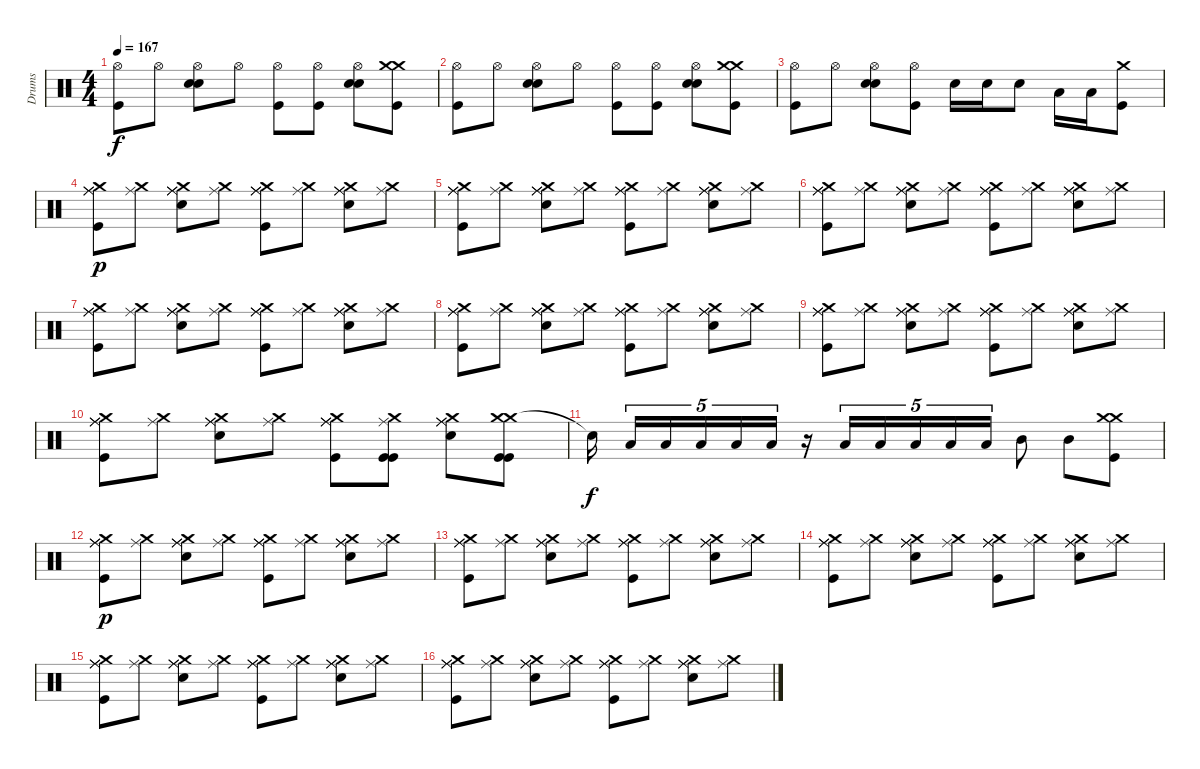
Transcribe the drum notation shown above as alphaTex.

\track ("Drums" "Drums") {instrument percussion}
\staff {score}
\articulation defaults
\ts (4 4)
\tempo 167
\clef neutral
\ks c
("Hi-Hat (open)" "Kick (hit)").8{dy f} "Hi-Hat (open)".8 ("Hi-Hat (open)" "Snare (hit) 2" "Snare (hit) 2").8 "Hi-Hat (open)".8 ("Hi-Hat (open)" "Kick (hit)").8 ("Hi-Hat (open)" "Kick (hit)").8 ("Hi-Hat (open)" "Snare (hit) 2" "Snare (hit) 2").8 ("Crash medium (hit)" "Crash medium (hit)" "Kick (hit)").8 |
("Hi-Hat (open)" "Kick (hit)").8 "Hi-Hat (open)".8 ("Hi-Hat (open)" "Snare (hit) 2" "Snare (hit) 2").8 "Hi-Hat (open)".8 ("Hi-Hat (open)" "Kick (hit)").8 ("Hi-Hat (open)" "Kick (hit)").8 ("Hi-Hat (open)" "Snare (hit) 2" "Snare (hit) 2").8 ("Crash medium (hit)" "Crash medium (hit)" "Kick (hit)").8 |
("Hi-Hat (open)" "Kick (hit)").8 "Hi-Hat (open)".8 ("Hi-Hat (open)" "Snare (hit) 2" "Snare (hit) 2").8 ("Hi-Hat (open)" "Kick (hit)").8 "Snare (hit) 2".16 "Snare (hit) 2".16 "Snare (hit) 2".8 "Low Tom (hit)".16 "Low Tom (hit)".16 ("Crash medium (hit)" "Kick (hit)").8 |
("Ride (middle)" "Crash medium (hit)" "Ride (middle)" "Ride (middle)" "Kick (hit)").8{dy p} ("Ride (middle)" "Crash medium (hit)").8 ("Ride (middle)" "Crash medium (hit)" "Snare (hit) 2" "Ride (middle)" "Ride (middle)").8 ("Ride (middle)" "Crash medium (hit)").8 ("Ride (middle)" "Crash medium (hit)" "Ride (middle)" "Ride (middle)" "Kick (hit)").8 ("Ride (middle)" "Crash medium (hit)").8 ("Ride (middle)" "Crash medium (hit)" "Snare (hit) 2" "Ride (middle)" "Ride (middle)").8 ("Ride (middle)" "Crash medium (hit)").8 |
("Ride (middle)" "Crash medium (hit)" "Ride (middle)" "Ride (middle)" "Kick (hit)").8 ("Ride (middle)" "Crash medium (hit)").8 ("Ride (middle)" "Crash medium (hit)" "Snare (hit) 2" "Ride (middle)" "Ride (middle)").8 ("Ride (middle)" "Crash medium (hit)").8 ("Ride (middle)" "Crash medium (hit)" "Ride (middle)" "Ride (middle)" "Kick (hit)").8 ("Ride (middle)" "Crash medium (hit)").8 ("Ride (middle)" "Crash medium (hit)" "Snare (hit) 2" "Ride (middle)" "Ride (middle)").8 ("Ride (middle)" "Crash medium (hit)").8 |
("Ride (middle)" "Crash medium (hit)" "Ride (middle)" "Ride (middle)" "Kick (hit)").8 ("Ride (middle)" "Crash medium (hit)").8 ("Ride (middle)" "Crash medium (hit)" "Snare (hit) 2" "Ride (middle)" "Ride (middle)").8 ("Ride (middle)" "Crash medium (hit)").8 ("Ride (middle)" "Crash medium (hit)" "Ride (middle)" "Ride (middle)" "Kick (hit)").8 ("Ride (middle)" "Crash medium (hit)").8 ("Ride (middle)" "Crash medium (hit)" "Snare (hit) 2" "Ride (middle)" "Ride (middle)").8 ("Ride (middle)" "Crash medium (hit)").8 |
("Ride (middle)" "Crash medium (hit)" "Ride (middle)" "Ride (middle)" "Kick (hit)").8 ("Ride (middle)" "Crash medium (hit)").8 ("Ride (middle)" "Crash medium (hit)" "Snare (hit) 2" "Ride (middle)" "Ride (middle)").8 ("Ride (middle)" "Crash medium (hit)").8 ("Ride (middle)" "Crash medium (hit)" "Ride (middle)" "Ride (middle)" "Kick (hit)").8 ("Ride (middle)" "Crash medium (hit)").8 ("Ride (middle)" "Crash medium (hit)" "Snare (hit) 2" "Ride (middle)" "Ride (middle)").8 ("Ride (middle)" "Crash medium (hit)").8 |
("Ride (middle)" "Crash medium (hit)" "Ride (middle)" "Ride (middle)" "Kick (hit)").8 ("Ride (middle)" "Crash medium (hit)").8 ("Ride (middle)" "Crash medium (hit)" "Snare (hit) 2" "Ride (middle)" "Ride (middle)").8 ("Ride (middle)" "Crash medium (hit)").8 ("Ride (middle)" "Crash medium (hit)" "Ride (middle)" "Ride (middle)" "Kick (hit)").8 ("Ride (middle)" "Crash medium (hit)").8 ("Ride (middle)" "Crash medium (hit)" "Snare (hit) 2" "Ride (middle)" "Ride (middle)").8 ("Ride (middle)" "Crash medium (hit)").8 |
("Ride (middle)" "Crash medium (hit)" "Ride (middle)" "Ride (middle)" "Kick (hit)").8 ("Ride (middle)" "Crash medium (hit)").8 ("Ride (middle)" "Crash medium (hit)" "Snare (hit) 2" "Ride (middle)" "Ride (middle)").8 ("Ride (middle)" "Crash medium (hit)").8 ("Ride (middle)" "Crash medium (hit)" "Ride (middle)" "Ride (middle)" "Kick (hit)").8 ("Ride (middle)" "Crash medium (hit)").8 ("Ride (middle)" "Crash medium (hit)" "Snare (hit) 2" "Ride (middle)" "Ride (middle)").8 ("Ride (middle)" "Crash medium (hit)").8 |
("Ride (middle)" "Crash medium (hit)" "Ride (middle)" "Ride (middle)" "Kick (hit)").8 ("Ride (middle)" "Crash medium (hit)").8 ("Ride (middle)" "Crash medium (hit)" "Snare (hit) 2" "Ride (middle)" "Ride (middle)").8 ("Ride (middle)" "Crash medium (hit)").8 ("Ride (middle)" "Crash medium (hit)" "Ride (middle)" "Ride (middle)" "Kick (hit)").8 ("Ride (middle)" "Crash medium (hit)" "Kick (hit)" "Kick (hit)").8 ("Ride (middle)" "Crash medium (hit)" "Snare (hit) 2" "Ride (middle)" "Ride (middle)").8 ("Crash medium (hit)" "Crash medium (hit)" "Kick (hit)" "Kick (hit)").8 |
"Snare (hit)"{t}.16{dy f} "Low Tom (hit)".16{tu (5 4)} "Low Tom (hit)".16{tu (5 4)} "Low Tom (hit)".16{tu (5 4)} "Low Tom (hit)".16{tu (5 4)} "Low Tom (hit)".16{tu (5 4)} r.16 "Low Tom (hit)".16{tu (5 4)} "Low Tom (hit)".16{tu (5 4)} "Low Tom (hit)".16{tu (5 4)} "Low Tom (hit)".16{tu (5 4)} "Low Tom (hit)".16{tu (5 4)} "Mid Tom (hit)".8 "Mid Tom (hit)".8 ("Crash medium (hit)" "Crash medium (hit)" "Kick (hit)").8 |
("Ride (middle)" "Crash medium (hit)" "Ride (middle)" "Ride (middle)" "Kick (hit)").8{dy p} ("Ride (middle)" "Crash medium (hit)").8 ("Ride (middle)" "Crash medium (hit)" "Snare (hit) 2" "Ride (middle)" "Ride (middle)").8 ("Ride (middle)" "Crash medium (hit)").8 ("Ride (middle)" "Crash medium (hit)" "Ride (middle)" "Ride (middle)" "Kick (hit)").8 ("Ride (middle)" "Crash medium (hit)").8 ("Ride (middle)" "Crash medium (hit)" "Snare (hit) 2" "Ride (middle)" "Ride (middle)").8 ("Ride (middle)" "Crash medium (hit)").8 |
("Ride (middle)" "Crash medium (hit)" "Ride (middle)" "Ride (middle)" "Kick (hit)").8 ("Ride (middle)" "Crash medium (hit)").8 ("Ride (middle)" "Crash medium (hit)" "Snare (hit) 2" "Ride (middle)" "Ride (middle)").8 ("Ride (middle)" "Crash medium (hit)").8 ("Ride (middle)" "Crash medium (hit)" "Ride (middle)" "Ride (middle)" "Kick (hit)").8 ("Ride (middle)" "Crash medium (hit)").8 ("Ride (middle)" "Crash medium (hit)" "Snare (hit) 2" "Ride (middle)" "Ride (middle)").8 ("Ride (middle)" "Crash medium (hit)").8 |
("Ride (middle)" "Crash medium (hit)" "Ride (middle)" "Ride (middle)" "Kick (hit)").8 ("Ride (middle)" "Crash medium (hit)").8 ("Ride (middle)" "Crash medium (hit)" "Snare (hit) 2" "Ride (middle)" "Ride (middle)").8 ("Ride (middle)" "Crash medium (hit)").8 ("Ride (middle)" "Crash medium (hit)" "Ride (middle)" "Ride (middle)" "Kick (hit)").8 ("Ride (middle)" "Crash medium (hit)").8 ("Ride (middle)" "Crash medium (hit)" "Snare (hit) 2" "Ride (middle)" "Ride (middle)").8 ("Ride (middle)" "Crash medium (hit)").8 |
("Ride (middle)" "Crash medium (hit)" "Ride (middle)" "Ride (middle)" "Kick (hit)").8 ("Ride (middle)" "Crash medium (hit)").8 ("Ride (middle)" "Crash medium (hit)" "Snare (hit) 2" "Ride (middle)" "Ride (middle)").8 ("Ride (middle)" "Crash medium (hit)").8 ("Ride (middle)" "Crash medium (hit)" "Ride (middle)" "Ride (middle)" "Kick (hit)").8 ("Ride (middle)" "Crash medium (hit)").8 ("Ride (middle)" "Crash medium (hit)" "Snare (hit) 2" "Ride (middle)" "Ride (middle)").8 ("Ride (middle)" "Crash medium (hit)").8 |
("Ride (middle)" "Crash medium (hit)" "Ride (middle)" "Ride (middle)" "Kick (hit)").8 ("Ride (middle)" "Crash medium (hit)").8 ("Ride (middle)" "Crash medium (hit)" "Snare (hit) 2" "Ride (middle)" "Ride (middle)").8 ("Ride (middle)" "Crash medium (hit)").8 ("Ride (middle)" "Crash medium (hit)" "Ride (middle)" "Ride (middle)" "Kick (hit)").8 ("Ride (middle)" "Crash medium (hit)").8 ("Ride (middle)" "Crash medium (hit)" "Snare (hit) 2" "Ride (middle)" "Ride (middle)").8 ("Ride (middle)" "Crash medium (hit)").8
